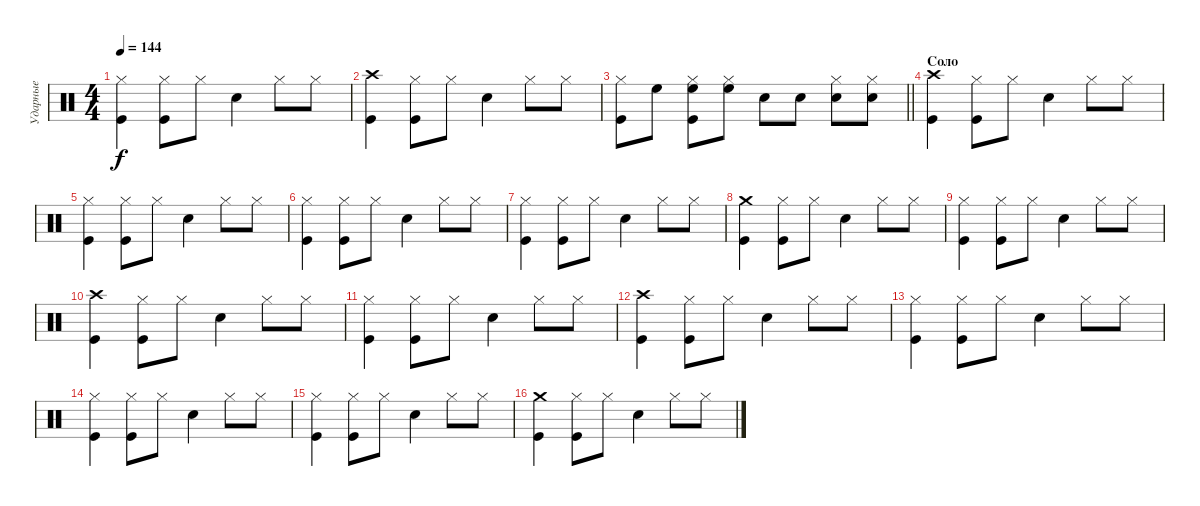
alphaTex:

\track ("Ударные" "Ударные") {instrument percussion}
\staff {score}
\articulation defaults
\ts (4 4)
\tempo 144
\clef neutral
\ks c
("Hi-Hat (closed)" "Kick (hit)").4{dy f} ("Hi-Hat (closed)" "Kick (hit)").8 "Hi-Hat (closed)".8 "Snare (hit) 2".4 "Hi-Hat (closed)".8 "Hi-Hat (closed)".8 |
("Crash high (hit)" "Kick (hit)").4 ("Hi-Hat (closed)" "Kick (hit)").8 "Hi-Hat (closed)".8 "Snare (hit) 2".4 "Hi-Hat (closed)".8 "Hi-Hat (closed)".8 |
\barLineRight lightlight
("Hi-Hat (closed)" "Kick (hit)").8 "High Floor Tom (hit)".8 ("Hi-Hat (closed)" "High Floor Tom (hit)" "Kick (hit)").8 ("Hi-Hat (closed)" "High Floor Tom (hit)").8 "Snare (hit) 2".8 "Snare (hit) 2".8 ("Hi-Hat (closed)" "Snare (hit) 2").8 ("Hi-Hat (closed)" "Snare (hit) 2").8 |
\section ("" "Соло")
("Crash high (hit)" "Kick (hit)").4 ("Hi-Hat (closed)" "Kick (hit)").8 "Hi-Hat (closed)".8 "Snare (hit) 2".4 "Hi-Hat (closed)".8 "Hi-Hat (closed)".8 |
("Hi-Hat (closed)" "Kick (hit)").4 ("Hi-Hat (closed)" "Kick (hit)").8 "Hi-Hat (closed)".8 "Snare (hit) 2".4 "Hi-Hat (closed)".8 "Hi-Hat (closed)".8 |
("Hi-Hat (closed)" "Kick (hit)").4 ("Hi-Hat (closed)" "Kick (hit)").8 "Hi-Hat (closed)".8 "Snare (hit) 2".4 "Hi-Hat (closed)".8 "Hi-Hat (closed)".8 |
("Hi-Hat (closed)" "Kick (hit)").4 ("Hi-Hat (closed)" "Kick (hit)").8 "Hi-Hat (closed)".8 "Snare (hit) 2".4 "Hi-Hat (closed)".8 "Hi-Hat (closed)".8 |
("Crash medium (hit)" "Kick (hit)").4 ("Hi-Hat (closed)" "Kick (hit)").8 "Hi-Hat (closed)".8 "Snare (hit) 2".4 "Hi-Hat (closed)".8 "Hi-Hat (closed)".8 |
("Hi-Hat (closed)" "Kick (hit)").4 ("Hi-Hat (closed)" "Kick (hit)").8 "Hi-Hat (closed)".8 "Snare (hit) 2".4 "Hi-Hat (closed)".8 "Hi-Hat (closed)".8 |
("Crash high (hit)" "Kick (hit)").4 ("Hi-Hat (closed)" "Kick (hit)").8 "Hi-Hat (closed)".8 "Snare (hit) 2".4 "Hi-Hat (closed)".8 "Hi-Hat (closed)".8 |
("Hi-Hat (closed)" "Kick (hit)").4 ("Hi-Hat (closed)" "Kick (hit)").8 "Hi-Hat (closed)".8 "Snare (hit) 2".4 "Hi-Hat (closed)".8 "Hi-Hat (closed)".8 |
("Crash high (hit)" "Kick (hit)").4 ("Hi-Hat (closed)" "Kick (hit)").8 "Hi-Hat (closed)".8 "Snare (hit) 2".4 "Hi-Hat (closed)".8 "Hi-Hat (closed)".8 |
("Hi-Hat (closed)" "Kick (hit)").4 ("Hi-Hat (closed)" "Kick (hit)").8 "Hi-Hat (closed)".8 "Snare (hit) 2".4 "Hi-Hat (closed)".8 "Hi-Hat (closed)".8 |
("Hi-Hat (closed)" "Kick (hit)").4 ("Hi-Hat (closed)" "Kick (hit)").8 "Hi-Hat (closed)".8 "Snare (hit) 2".4 "Hi-Hat (closed)".8 "Hi-Hat (closed)".8 |
("Hi-Hat (closed)" "Kick (hit)").4 ("Hi-Hat (closed)" "Kick (hit)").8 "Hi-Hat (closed)".8 "Snare (hit) 2".4 "Hi-Hat (closed)".8 "Hi-Hat (closed)".8 |
("Crash medium (hit)" "Kick (hit)").4 ("Hi-Hat (closed)" "Kick (hit)").8 "Hi-Hat (closed)".8 "Snare (hit) 2".4 "Hi-Hat (closed)".8 "Hi-Hat (closed)".8
